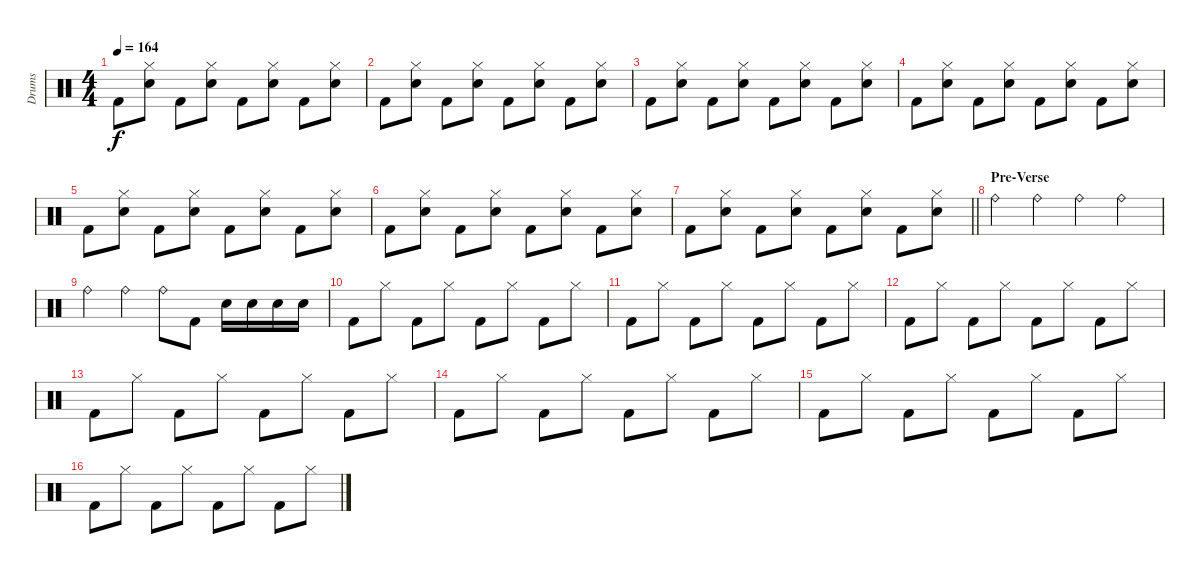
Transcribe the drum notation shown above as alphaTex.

\track ("Drums" "Drums") {instrument percussion}
\staff {score}
\articulation defaults
\ts (4 4)
\tempo 164
\clef neutral
\ks c "Kick (hit) 2".8{dy f}
("Hi-Hat (closed)" "Electric Snare (hit)").8 "Kick (hit) 2".8 ("Hi-Hat (closed)" "Electric Snare (hit)").8 "Kick (hit) 2".8 ("Hi-Hat (closed)" "Electric Snare (hit)").8 "Kick (hit) 2".8 ("Hi-Hat (closed)" "Electric Snare (hit)").8 |
"Kick (hit) 2".8 ("Hi-Hat (closed)" "Electric Snare (hit)").8 "Kick (hit) 2".8 ("Hi-Hat (closed)" "Electric Snare (hit)").8 "Kick (hit) 2".8 ("Hi-Hat (closed)" "Electric Snare (hit)").8 "Kick (hit) 2".8 ("Hi-Hat (closed)" "Electric Snare (hit)").8 |
"Kick (hit) 2".8 ("Hi-Hat (closed)" "Electric Snare (hit)").8 "Kick (hit) 2".8 ("Hi-Hat (closed)" "Electric Snare (hit)").8 "Kick (hit) 2".8 ("Hi-Hat (closed)" "Electric Snare (hit)").8 "Kick (hit) 2".8 ("Hi-Hat (closed)" "Electric Snare (hit)").8 |
"Kick (hit) 2".8 ("Hi-Hat (closed)" "Electric Snare (hit)").8 "Kick (hit) 2".8 ("Hi-Hat (closed)" "Electric Snare (hit)").8 "Kick (hit) 2".8 ("Hi-Hat (closed)" "Electric Snare (hit)").8 "Kick (hit) 2".8 ("Hi-Hat (closed)" "Electric Snare (hit)").8 |
"Kick (hit) 2".8 ("Hi-Hat (closed)" "Electric Snare (hit)").8 "Kick (hit) 2".8 ("Hi-Hat (closed)" "Electric Snare (hit)").8 "Kick (hit) 2".8 ("Hi-Hat (closed)" "Electric Snare (hit)").8 "Kick (hit) 2".8 ("Hi-Hat (closed)" "Electric Snare (hit)").8 |
"Kick (hit) 2".8 ("Hi-Hat (closed)" "Electric Snare (hit)").8 "Kick (hit) 2".8 ("Hi-Hat (closed)" "Electric Snare (hit)").8 "Kick (hit) 2".8 ("Hi-Hat (closed)" "Electric Snare (hit)").8 "Kick (hit) 2".8 ("Hi-Hat (closed)" "Electric Snare (hit)").8 |
\barLineRight lightlight "Kick (hit) 2".8
("Hi-Hat (closed)" "Electric Snare (hit)").8 "Kick (hit) 2".8 ("Hi-Hat (closed)" "Electric Snare (hit)").8 "Kick (hit) 2".8 ("Hi-Hat (closed)" "Electric Snare (hit)").8 "Kick (hit) 2".8 ("Hi-Hat (closed)" "Electric Snare (hit)").8 |
\section ("" "Pre-Verse")
"Ride (bell)".4 "Ride (bell)".4 "Ride (bell)".4 "Ride (bell)".4 |
"Ride (bell)".4 "Ride (bell)".4 "Ride (bell)".8 "Kick (hit) 2".8 "Electric Snare (hit)".16 "Electric Snare (hit)".16 "Electric Snare (hit)".16 "Electric Snare (hit)".16 |
"Kick (hit) 2".8 "Hi-Hat (closed)".8 "Kick (hit) 2".8 "Hi-Hat (closed)".8 "Kick (hit) 2".8 "Hi-Hat (closed)".8 "Kick (hit) 2".8 "Hi-Hat (closed)".8 |
"Kick (hit) 2".8 "Hi-Hat (closed)".8 "Kick (hit) 2".8 "Hi-Hat (closed)".8 "Kick (hit) 2".8 "Hi-Hat (closed)".8 "Kick (hit) 2".8 "Hi-Hat (closed)".8 |
"Kick (hit) 2".8 "Hi-Hat (closed)".8 "Kick (hit) 2".8 "Hi-Hat (closed)".8 "Kick (hit) 2".8 "Hi-Hat (closed)".8 "Kick (hit) 2".8 "Hi-Hat (closed)".8 |
"Kick (hit) 2".8 "Hi-Hat (closed)".8 "Kick (hit) 2".8 "Hi-Hat (closed)".8 "Kick (hit) 2".8 "Hi-Hat (closed)".8 "Kick (hit) 2".8 "Hi-Hat (closed)".8 |
"Kick (hit) 2".8 "Hi-Hat (closed)".8 "Kick (hit) 2".8 "Hi-Hat (closed)".8 "Kick (hit) 2".8 "Hi-Hat (closed)".8 "Kick (hit) 2".8 "Hi-Hat (closed)".8 |
"Kick (hit) 2".8 "Hi-Hat (closed)".8 "Kick (hit) 2".8 "Hi-Hat (closed)".8 "Kick (hit) 2".8 "Hi-Hat (closed)".8 "Kick (hit) 2".8 "Hi-Hat (closed)".8 |
"Kick (hit) 2".8 "Hi-Hat (closed)".8 "Kick (hit) 2".8 "Hi-Hat (closed)".8 "Kick (hit) 2".8 "Hi-Hat (closed)".8 "Kick (hit) 2".8 "Hi-Hat (closed)".8
